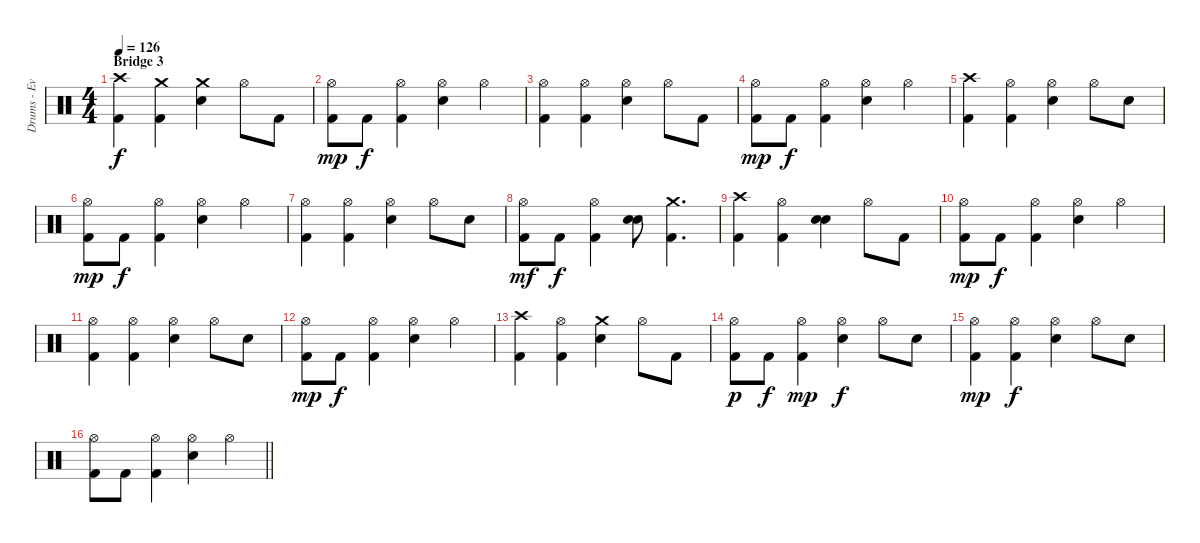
\track ("Drums - Evans" "Drums - Ev") {instrument percussion}
\staff {score}
\articulation defaults
\ts (4 4)
\section ("" "Bridge 3")
\tempo 126
\clef neutral
\ks c
("Crash high (hit)" "Kick (hit) 2").4{dy f} ("Crash medium (hit)" "Kick (hit) 2").4 ("Crash medium (hit)" "Electric Snare (hit)").4 "Hi-Hat (open)".8 "Kick (hit) 2".8 |
("Hi-Hat (open)" "Kick (hit) 2").8{dy mp} "Kick (hit) 2".8{dy f} ("Hi-Hat (open)" "Kick (hit) 2").4 ("Hi-Hat (open)" "Electric Snare (hit)").4 "Hi-Hat (open)".4 |
("Hi-Hat (open)" "Kick (hit) 2").4 ("Hi-Hat (open)" "Kick (hit) 2").4 ("Hi-Hat (open)" "Electric Snare (hit)").4 "Hi-Hat (open)".8 "Kick (hit) 2".8 |
("Hi-Hat (open)" "Kick (hit) 2").8{dy mp} "Kick (hit) 2".8{dy f} ("Hi-Hat (open)" "Kick (hit) 2").4 ("Hi-Hat (open)" "Electric Snare (hit)").4 "Hi-Hat (open)".4 |
("Crash high (hit)" "Kick (hit) 2").4 ("Hi-Hat (open)" "Kick (hit) 2").4 ("Hi-Hat (open)" "Electric Snare (hit)").4 "Hi-Hat (open)".8 "Electric Snare (hit)".8 |
("Hi-Hat (open)" "Kick (hit) 2").8{dy mp} "Kick (hit) 2".8{dy f} ("Hi-Hat (open)" "Kick (hit) 2").4 ("Hi-Hat (open)" "Electric Snare (hit)").4 "Hi-Hat (open)".4 |
("Hi-Hat (open)" "Kick (hit) 2").4 ("Hi-Hat (open)" "Kick (hit) 2").4 ("Hi-Hat (open)" "Electric Snare (hit)").4 "Hi-Hat (open)".8 "Electric Snare (hit)".8 |
("Hi-Hat (open)" "Kick (hit) 2").8{dy mf} "Kick (hit) 2".8{dy f} ("Hi-Hat (open)" "Kick (hit) 2").4 ("Electric Snare (hit)" "Electric Snare (hit)").8 ("Crash medium (hit)" "Kick (hit) 2").4{d} |
("Crash high (hit)" "Kick (hit) 2").4 ("Hi-Hat (open)" "Kick (hit) 2").4 ("Electric Snare (hit)" "Electric Snare (hit)").4 "Hi-Hat (open)".8 "Kick (hit) 2".8 |
("Hi-Hat (open)" "Kick (hit) 2").8{dy mp} "Kick (hit) 2".8{dy f} ("Hi-Hat (open)" "Kick (hit) 2").4 ("Hi-Hat (open)" "Electric Snare (hit)").4 "Hi-Hat (open)".4 |
("Hi-Hat (open)" "Kick (hit) 2").4 ("Hi-Hat (open)" "Kick (hit) 2").4 ("Hi-Hat (open)" "Electric Snare (hit)").4 "Hi-Hat (open)".8 "Electric Snare (hit)".8 |
("Hi-Hat (open)" "Kick (hit) 2").8{dy mp} "Kick (hit) 2".8{dy f} ("Hi-Hat (open)" "Kick (hit) 2").4 ("Hi-Hat (open)" "Electric Snare (hit)").4 "Hi-Hat (open)".4 |
("Crash high (hit)" "Kick (hit) 2").4 ("Hi-Hat (open)" "Kick (hit) 2").4 ("Crash medium (hit)" "Electric Snare (hit)").4 "Hi-Hat (open)".8 "Kick (hit) 2".8 |
("Hi-Hat (open)" "Kick (hit) 2").8{dy p} "Kick (hit) 2".8{dy f} ("Hi-Hat (open)" "Kick (hit) 2").4{dy mp} ("Hi-Hat (open)" "Electric Snare (hit)").4{dy f} "Hi-Hat (open)".8 "Electric Snare (hit)".8 |
("Hi-Hat (open)" "Kick (hit) 2").4{dy mp} ("Hi-Hat (open)" "Kick (hit) 2").4{dy f} ("Hi-Hat (open)" "Electric Snare (hit)").4 "Hi-Hat (open)".8 "Electric Snare (hit)".8 |
\barLineRight lightlight
("Hi-Hat (open)" "Kick (hit) 2").8 "Kick (hit) 2".8 ("Hi-Hat (open)" "Kick (hit) 2").4 ("Hi-Hat (open)" "Electric Snare (hit)").4 "Hi-Hat (open)".4
